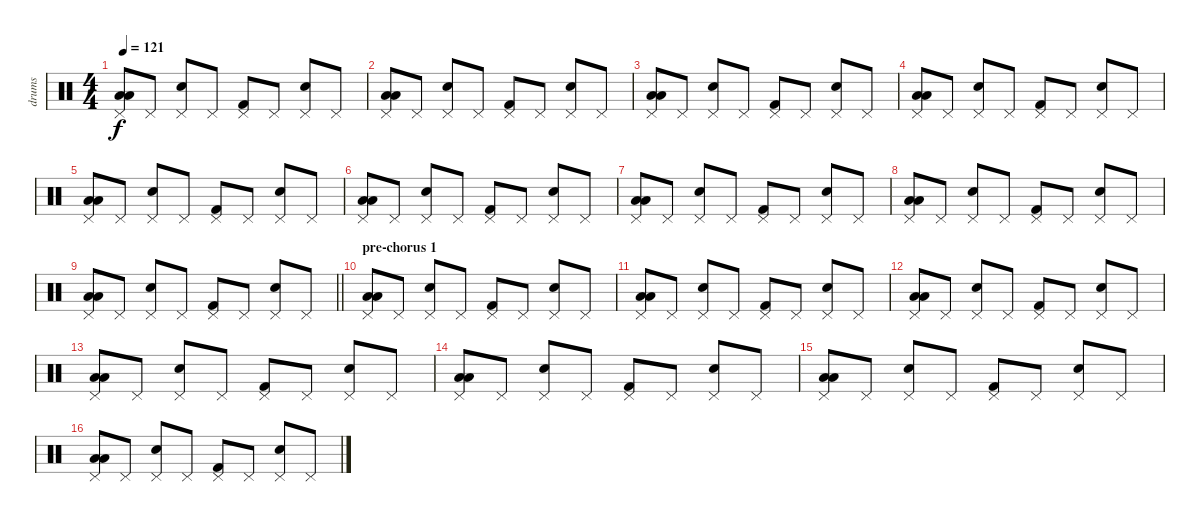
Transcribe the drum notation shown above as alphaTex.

\track ("drums" "drums") {instrument percussion}
\staff {score}
\articulation defaults
\ts (4 4)
\tempo 121
\clef neutral
\ks c
("Low Floor Tom (hit)" "Low Floor Tom (hit)" "Pedal Hi-Hat (hit)").8{dy f} "Pedal Hi-Hat (hit)".8 ("Hand Clap (hit)" "Pedal Hi-Hat (hit)").8 "Pedal Hi-Hat (hit)".8 ("Kick (hit) 2" "Pedal Hi-Hat (hit)").8 "Pedal Hi-Hat (hit)".8 ("Snare (hit) 2" "Pedal Hi-Hat (hit)").8 "Pedal Hi-Hat (hit)".8 |
("Low Floor Tom (hit)" "Low Floor Tom (hit)" "Pedal Hi-Hat (hit)").8 "Pedal Hi-Hat (hit)".8 ("Hand Clap (hit)" "Pedal Hi-Hat (hit)").8 "Pedal Hi-Hat (hit)".8 ("Kick (hit) 2" "Pedal Hi-Hat (hit)").8 "Pedal Hi-Hat (hit)".8 ("Snare (hit) 2" "Pedal Hi-Hat (hit)").8 "Pedal Hi-Hat (hit)".8 |
("Low Floor Tom (hit)" "Low Floor Tom (hit)" "Pedal Hi-Hat (hit)").8 "Pedal Hi-Hat (hit)".8 ("Hand Clap (hit)" "Pedal Hi-Hat (hit)").8 "Pedal Hi-Hat (hit)".8 ("Kick (hit) 2" "Pedal Hi-Hat (hit)").8 "Pedal Hi-Hat (hit)".8 ("Snare (hit) 2" "Pedal Hi-Hat (hit)").8 "Pedal Hi-Hat (hit)".8 |
("Low Floor Tom (hit)" "Low Floor Tom (hit)" "Pedal Hi-Hat (hit)").8 "Pedal Hi-Hat (hit)".8 ("Hand Clap (hit)" "Pedal Hi-Hat (hit)").8 "Pedal Hi-Hat (hit)".8 ("Kick (hit) 2" "Pedal Hi-Hat (hit)").8 "Pedal Hi-Hat (hit)".8 ("Snare (hit) 2" "Pedal Hi-Hat (hit)").8 "Pedal Hi-Hat (hit)".8 |
("Low Floor Tom (hit)" "Low Floor Tom (hit)" "Pedal Hi-Hat (hit)").8 "Pedal Hi-Hat (hit)".8 ("Hand Clap (hit)" "Pedal Hi-Hat (hit)").8 "Pedal Hi-Hat (hit)".8 ("Kick (hit) 2" "Pedal Hi-Hat (hit)").8 "Pedal Hi-Hat (hit)".8 ("Snare (hit) 2" "Pedal Hi-Hat (hit)").8 "Pedal Hi-Hat (hit)".8 |
("Low Floor Tom (hit)" "Low Floor Tom (hit)" "Pedal Hi-Hat (hit)").8 "Pedal Hi-Hat (hit)".8 ("Hand Clap (hit)" "Pedal Hi-Hat (hit)").8 "Pedal Hi-Hat (hit)".8 ("Kick (hit) 2" "Pedal Hi-Hat (hit)").8 "Pedal Hi-Hat (hit)".8 ("Snare (hit) 2" "Pedal Hi-Hat (hit)").8 "Pedal Hi-Hat (hit)".8 |
("Low Floor Tom (hit)" "Low Floor Tom (hit)" "Pedal Hi-Hat (hit)").8 "Pedal Hi-Hat (hit)".8 ("Hand Clap (hit)" "Pedal Hi-Hat (hit)").8 "Pedal Hi-Hat (hit)".8 ("Kick (hit) 2" "Pedal Hi-Hat (hit)").8 "Pedal Hi-Hat (hit)".8 ("Snare (hit) 2" "Pedal Hi-Hat (hit)").8 "Pedal Hi-Hat (hit)".8 |
("Low Floor Tom (hit)" "Low Floor Tom (hit)" "Pedal Hi-Hat (hit)").8 "Pedal Hi-Hat (hit)".8 ("Hand Clap (hit)" "Pedal Hi-Hat (hit)").8 "Pedal Hi-Hat (hit)".8 ("Kick (hit) 2" "Pedal Hi-Hat (hit)").8 "Pedal Hi-Hat (hit)".8 ("Snare (hit) 2" "Pedal Hi-Hat (hit)").8 "Pedal Hi-Hat (hit)".8 |
\barLineRight lightlight
("Low Floor Tom (hit)" "Low Floor Tom (hit)" "Pedal Hi-Hat (hit)").8 "Pedal Hi-Hat (hit)".8 ("Hand Clap (hit)" "Pedal Hi-Hat (hit)").8 "Pedal Hi-Hat (hit)".8 ("Kick (hit) 2" "Pedal Hi-Hat (hit)").8 "Pedal Hi-Hat (hit)".8 ("Snare (hit) 2" "Pedal Hi-Hat (hit)").8 "Pedal Hi-Hat (hit)".8 |
\section ("" "pre-chorus 1")
("Low Floor Tom (hit)" "Low Floor Tom (hit)" "Pedal Hi-Hat (hit)").8 "Pedal Hi-Hat (hit)".8 ("Hand Clap (hit)" "Pedal Hi-Hat (hit)").8 "Pedal Hi-Hat (hit)".8 ("Kick (hit) 2" "Pedal Hi-Hat (hit)").8 "Pedal Hi-Hat (hit)".8 ("Snare (hit) 2" "Pedal Hi-Hat (hit)").8 "Pedal Hi-Hat (hit)".8 |
("Low Floor Tom (hit)" "Low Floor Tom (hit)" "Pedal Hi-Hat (hit)").8 "Pedal Hi-Hat (hit)".8 ("Hand Clap (hit)" "Pedal Hi-Hat (hit)").8 "Pedal Hi-Hat (hit)".8 ("Kick (hit) 2" "Pedal Hi-Hat (hit)").8 "Pedal Hi-Hat (hit)".8 ("Snare (hit) 2" "Pedal Hi-Hat (hit)").8 "Pedal Hi-Hat (hit)".8 |
("Low Floor Tom (hit)" "Low Floor Tom (hit)" "Pedal Hi-Hat (hit)").8 "Pedal Hi-Hat (hit)".8 ("Hand Clap (hit)" "Pedal Hi-Hat (hit)").8 "Pedal Hi-Hat (hit)".8 ("Kick (hit) 2" "Pedal Hi-Hat (hit)").8 "Pedal Hi-Hat (hit)".8 ("Snare (hit) 2" "Pedal Hi-Hat (hit)").8 "Pedal Hi-Hat (hit)".8 |
("Low Floor Tom (hit)" "Low Floor Tom (hit)" "Pedal Hi-Hat (hit)").8 "Pedal Hi-Hat (hit)".8 ("Hand Clap (hit)" "Pedal Hi-Hat (hit)").8 "Pedal Hi-Hat (hit)".8 ("Kick (hit) 2" "Pedal Hi-Hat (hit)").8 "Pedal Hi-Hat (hit)".8 ("Snare (hit) 2" "Pedal Hi-Hat (hit)").8 "Pedal Hi-Hat (hit)".8 |
("Low Floor Tom (hit)" "Low Floor Tom (hit)" "Pedal Hi-Hat (hit)").8 "Pedal Hi-Hat (hit)".8 ("Hand Clap (hit)" "Pedal Hi-Hat (hit)").8 "Pedal Hi-Hat (hit)".8 ("Kick (hit) 2" "Pedal Hi-Hat (hit)").8 "Pedal Hi-Hat (hit)".8 ("Snare (hit) 2" "Pedal Hi-Hat (hit)").8 "Pedal Hi-Hat (hit)".8 |
("Low Floor Tom (hit)" "Low Floor Tom (hit)" "Pedal Hi-Hat (hit)").8 "Pedal Hi-Hat (hit)".8 ("Hand Clap (hit)" "Pedal Hi-Hat (hit)").8 "Pedal Hi-Hat (hit)".8 ("Kick (hit) 2" "Pedal Hi-Hat (hit)").8 "Pedal Hi-Hat (hit)".8 ("Snare (hit) 2" "Pedal Hi-Hat (hit)").8 "Pedal Hi-Hat (hit)".8 |
("Low Floor Tom (hit)" "Low Floor Tom (hit)" "Pedal Hi-Hat (hit)").8 "Pedal Hi-Hat (hit)".8 ("Hand Clap (hit)" "Pedal Hi-Hat (hit)").8 "Pedal Hi-Hat (hit)".8 ("Kick (hit) 2" "Pedal Hi-Hat (hit)").8 "Pedal Hi-Hat (hit)".8 ("Snare (hit) 2" "Pedal Hi-Hat (hit)").8 "Pedal Hi-Hat (hit)".8
